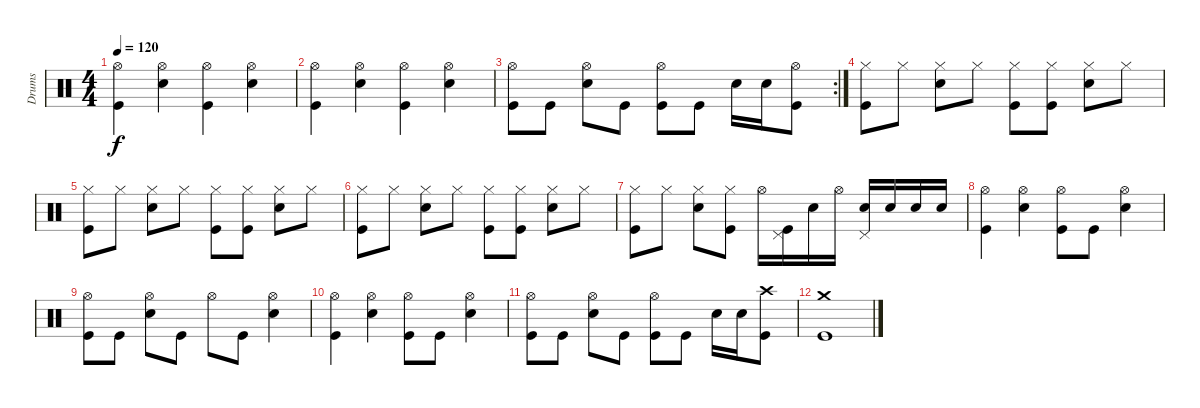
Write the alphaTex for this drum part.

\bracketExtendMode groupsimilarinstruments
\otherSystemsTrackNameOrientation horizontal
\track ("Drumkit" "Drums") {instrument percussion}
\staff {score}
\articulation defaults
\ts (4 4)
\tempo 120
\clef neutral
\ks c
("Kick (hit)" "Hi-Hat (open)").4{dy f} ("Snare (hit) 2" "Hi-Hat (open)").4 ("Kick (hit)" "Hi-Hat (open)").4 ("Snare (hit) 2" "Hi-Hat (open)").4 |
("Kick (hit)" "Hi-Hat (open)").4 ("Snare (hit) 2" "Hi-Hat (open)").4 ("Kick (hit)" "Hi-Hat (open)").4 ("Snare (hit) 2" "Hi-Hat (open)").4 |
\rc 2
("Kick (hit)" "Hi-Hat (open)").8 "Kick (hit)".8 ("Snare (hit) 2" "Hi-Hat (open)").8 "Kick (hit)".8 ("Hi-Hat (open)" "Kick (hit)").8 "Kick (hit)".8 "Snare (hit) 2".16 "Snare (hit) 2".16 ("Hi-Hat (open)" "Kick (hit)").8 |
("Hi-Hat (closed)" "Kick (hit)").8 "Hi-Hat (closed)".8 ("Hi-Hat (closed)" "Snare (hit) 2").8 "Hi-Hat (closed)".8 ("Hi-Hat (closed)" "Kick (hit)").8 ("Hi-Hat (closed)" "Kick (hit)").8 ("Hi-Hat (closed)" "Snare (hit) 2").8 "Hi-Hat (closed)".8 |
("Hi-Hat (closed)" "Kick (hit)").8 "Hi-Hat (closed)".8 ("Hi-Hat (closed)" "Snare (hit) 2").8 "Hi-Hat (closed)".8 ("Hi-Hat (closed)" "Kick (hit)").8 ("Hi-Hat (closed)" "Kick (hit)").8 ("Hi-Hat (closed)" "Snare (hit) 2").8 "Hi-Hat (closed)".8 |
("Hi-Hat (closed)" "Kick (hit)").8 "Hi-Hat (closed)".8 ("Hi-Hat (closed)" "Snare (hit) 2").8 "Hi-Hat (closed)".8 ("Hi-Hat (closed)" "Kick (hit)").8 ("Hi-Hat (closed)" "Kick (hit)").8 ("Hi-Hat (closed)" "Snare (hit) 2").8 "Hi-Hat (closed)".8 |
("Hi-Hat (closed)" "Kick (hit)").8 "Hi-Hat (closed)".8 ("Hi-Hat (closed)" "Snare (hit) 2").8 ("Hi-Hat (closed)" "Kick (hit)").8 "Hi-Hat (open)".16 ("Kick (hit)" "Pedal Hi-Hat (hit)").16 "Snare (hit) 2".16 "Hi-Hat (open)".16 ("Snare (hit) 2" "Pedal Hi-Hat (hit)").16 "Snare (hit) 2".16 "Snare (hit) 2".16 "Snare (hit) 2".16 |
("Kick (hit)" "Hi-Hat (open)").4 ("Snare (hit) 2" "Hi-Hat (open)").4 ("Kick (hit)" "Hi-Hat (open)").8 "Kick (hit)".8 ("Snare (hit) 2" "Hi-Hat (open)").4 |
("Kick (hit)" "Hi-Hat (open)").8 "Kick (hit)".8 ("Snare (hit) 2" "Hi-Hat (open)").8 "Kick (hit)".8 "Hi-Hat (open)".8 "Kick (hit)".8 ("Snare (hit) 2" "Hi-Hat (open)").4 |
("Kick (hit)" "Hi-Hat (open)").4 ("Snare (hit) 2" "Hi-Hat (open)").4 ("Kick (hit)" "Hi-Hat (open)").8 "Kick (hit)".8 ("Snare (hit) 2" "Hi-Hat (open)").4 |
("Kick (hit)" "Hi-Hat (open)").8 "Kick (hit)".8 ("Snare (hit) 2" "Hi-Hat (open)").8 "Kick (hit)".8 ("Hi-Hat (open)" "Kick (hit)").8 "Kick (hit)".8 "Snare (hit) 2".16 "Snare (hit) 2".16 ("Crash high (hit)" "Kick (hit)").8 |
("Crash medium (hit)" "Kick (hit)").1
